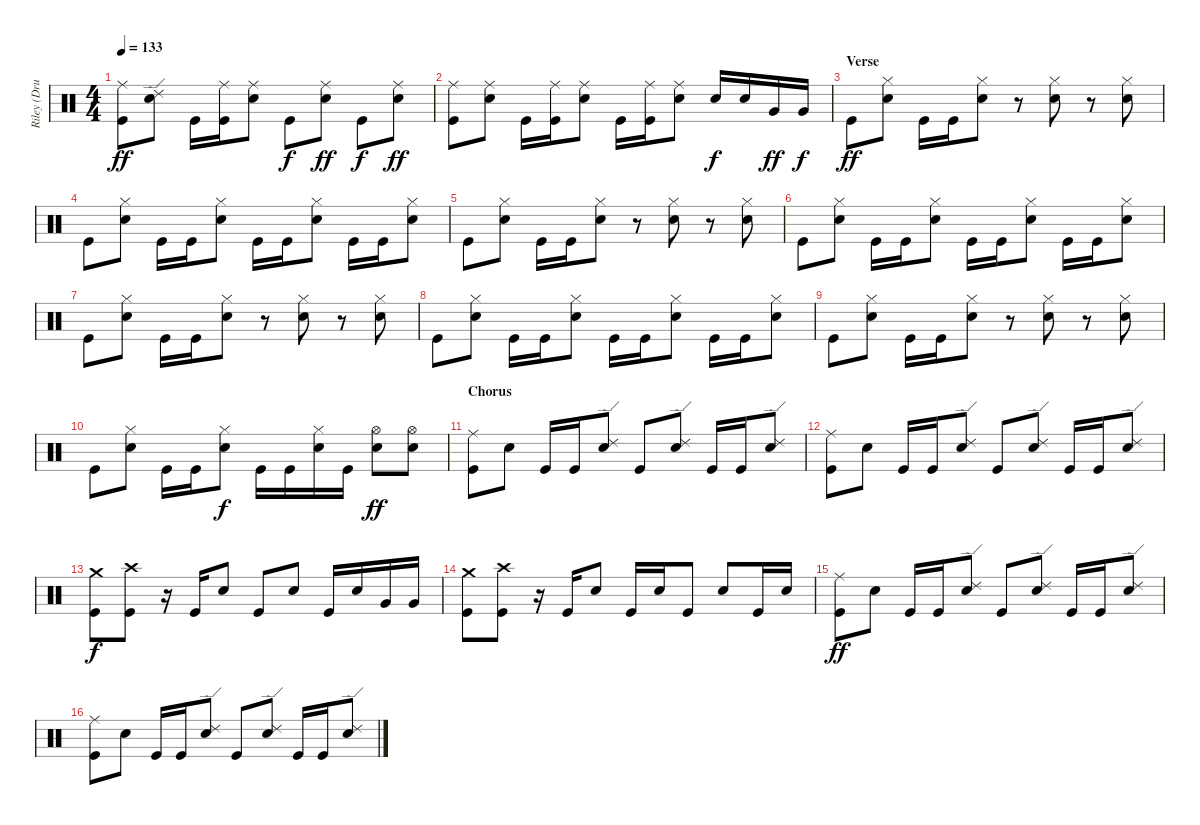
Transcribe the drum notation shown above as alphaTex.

\track ("Riley (Drums)" "Riley (Dru") {instrument percussion}
\staff {score}
\articulation defaults
\ts (4 4)
\tempo 133
\clef neutral
\ks c
("Ride (middle)" "Kick (hit)").8{dy ff} ("Ride (edge) 2" "Electric Snare (hit)").8 "Kick (hit)".16 ("Ride (middle)" "Kick (hit)").16 ("Ride (middle)" "Electric Snare (hit)").8 "Kick (hit)".8{dy f} ("Ride (middle)" "Electric Snare (hit)").8{dy ff} "Kick (hit)".8{dy f} ("Ride (middle)" "Electric Snare (hit)").8{dy ff} |
("Ride (middle)" "Kick (hit)").8 ("Ride (middle)" "Electric Snare (hit)").8 "Kick (hit)".16 ("Ride (middle)" "Kick (hit)").16 ("Ride (middle)" "Electric Snare (hit)").8 "Kick (hit)".16 ("Ride (middle)" "Kick (hit)").16 ("Ride (middle)" "Electric Snare (hit)").8 "Electric Snare (hit)".16{dy f} "Electric Snare (hit)".16 "Very Low Tom (hit)".16{dy ff} "Very Low Tom (hit)".16{dy f} |
\section ("" "Verse")
"Kick (hit)".8{dy ff} ("Hi-Hat (closed)" "Electric Snare (hit)").8 "Kick (hit)".16 "Kick (hit)".16 ("Hi-Hat (closed)" "Electric Snare (hit)").8 r.8 ("Hi-Hat (closed)" "Electric Snare (hit)").8 r.8 ("Hi-Hat (closed)" "Electric Snare (hit)").8 |
"Kick (hit)".8 ("Hi-Hat (closed)" "Electric Snare (hit)").8 "Kick (hit)".16 "Kick (hit)".16 ("Hi-Hat (closed)" "Electric Snare (hit)").8 "Kick (hit)".16 "Kick (hit)".16 ("Hi-Hat (closed)" "Electric Snare (hit)").8 "Kick (hit)".16 "Kick (hit)".16 ("Hi-Hat (closed)" "Electric Snare (hit)").8 |
"Kick (hit)".8 ("Hi-Hat (closed)" "Electric Snare (hit)").8 "Kick (hit)".16 "Kick (hit)".16 ("Hi-Hat (closed)" "Electric Snare (hit)").8 r.8 ("Hi-Hat (closed)" "Electric Snare (hit)").8 r.8 ("Hi-Hat (closed)" "Electric Snare (hit)").8 |
"Kick (hit)".8 ("Hi-Hat (closed)" "Electric Snare (hit)").8 "Kick (hit)".16 "Kick (hit)".16 ("Hi-Hat (closed)" "Electric Snare (hit)").8 "Kick (hit)".16 "Kick (hit)".16 ("Hi-Hat (closed)" "Electric Snare (hit)").8 "Kick (hit)".16 "Kick (hit)".16 ("Hi-Hat (closed)" "Electric Snare (hit)").8 |
"Kick (hit)".8 ("Hi-Hat (closed)" "Electric Snare (hit)").8 "Kick (hit)".16 "Kick (hit)".16 ("Hi-Hat (closed)" "Electric Snare (hit)").8 r.8 ("Hi-Hat (closed)" "Electric Snare (hit)").8 r.8 ("Hi-Hat (closed)" "Electric Snare (hit)").8 |
"Kick (hit)".8 ("Hi-Hat (closed)" "Electric Snare (hit)").8 "Kick (hit)".16 "Kick (hit)".16 ("Hi-Hat (closed)" "Electric Snare (hit)").8 "Kick (hit)".16 "Kick (hit)".16 ("Hi-Hat (closed)" "Electric Snare (hit)").8 "Kick (hit)".16 "Kick (hit)".16 ("Hi-Hat (closed)" "Electric Snare (hit)").8 |
"Kick (hit)".8 ("Hi-Hat (closed)" "Electric Snare (hit)").8 "Kick (hit)".16 "Kick (hit)".16 ("Hi-Hat (closed)" "Electric Snare (hit)").8 r.8 ("Hi-Hat (closed)" "Electric Snare (hit)").8 r.8 ("Hi-Hat (closed)" "Electric Snare (hit)").8 |
"Kick (hit)".8 ("Hi-Hat (closed)" "Electric Snare (hit)").8 "Kick (hit)".16 "Kick (hit)".16 ("Hi-Hat (closed)" "Electric Snare (hit)").8{dy f} "Kick (hit)".16 "Kick (hit)".16 ("Hi-Hat (closed)" "Electric Snare (hit)").16 "Kick (hit)".16 ("Hi-Hat (open)" "Electric Snare (hit)").8{dy ff} ("Hi-Hat (open)" "Electric Snare (hit)").8 |
\section ("" "Chorus")
("Ride (middle)" "Kick (hit)").8 "Electric Snare (hit)".8 "Kick (hit)".16 "Kick (hit)".16 ("Ride (edge) 2" "Electric Snare (hit)").8 "Kick (hit)".8 ("Ride (edge) 2" "Electric Snare (hit)").8 "Kick (hit)".16 "Kick (hit)".16 ("Ride (edge) 2" "Electric Snare (hit)").8 |
("Ride (middle)" "Kick (hit)").8 "Electric Snare (hit)".8 "Kick (hit)".16 "Kick (hit)".16 ("Ride (edge) 2" "Electric Snare (hit)").8 "Kick (hit)".8 ("Ride (edge) 2" "Electric Snare (hit)").8 "Kick (hit)".16 "Kick (hit)".16 ("Ride (edge) 2" "Electric Snare (hit)").8 |
("Crash medium (hit)" "Kick (hit)").8{dy f} ("Crash high (hit)" "Kick (hit)").8 r.16 "Kick (hit)".16 "Electric Snare (hit)".8 "Kick (hit)".8 "Electric Snare (hit)".8 "Kick (hit)".16 "Electric Snare (hit)".16 "Very Low Tom (hit)".16 "Very Low Tom (hit)".16 |
("Crash medium (hit)" "Kick (hit)").8 ("Crash high (hit)" "Kick (hit)").8 r.16 "Kick (hit)".16 "Electric Snare (hit)".8 "Kick (hit)".16 "Electric Snare (hit)".16 "Kick (hit)".8 "Electric Snare (hit)".8 "Kick (hit)".16 "Electric Snare (hit)".16 |
("Ride (middle)" "Kick (hit)").8{dy ff} "Electric Snare (hit)".8 "Kick (hit)".16 "Kick (hit)".16 ("Ride (edge) 2" "Electric Snare (hit)").8 "Kick (hit)".8 ("Ride (edge) 2" "Electric Snare (hit)").8 "Kick (hit)".16 "Kick (hit)".16 ("Ride (edge) 2" "Electric Snare (hit)").8 |
("Ride (middle)" "Kick (hit)").8 "Electric Snare (hit)".8 "Kick (hit)".16 "Kick (hit)".16 ("Ride (edge) 2" "Electric Snare (hit)").8 "Kick (hit)".8 ("Ride (edge) 2" "Electric Snare (hit)").8 "Kick (hit)".16 "Kick (hit)".16 ("Ride (edge) 2" "Electric Snare (hit)").8
